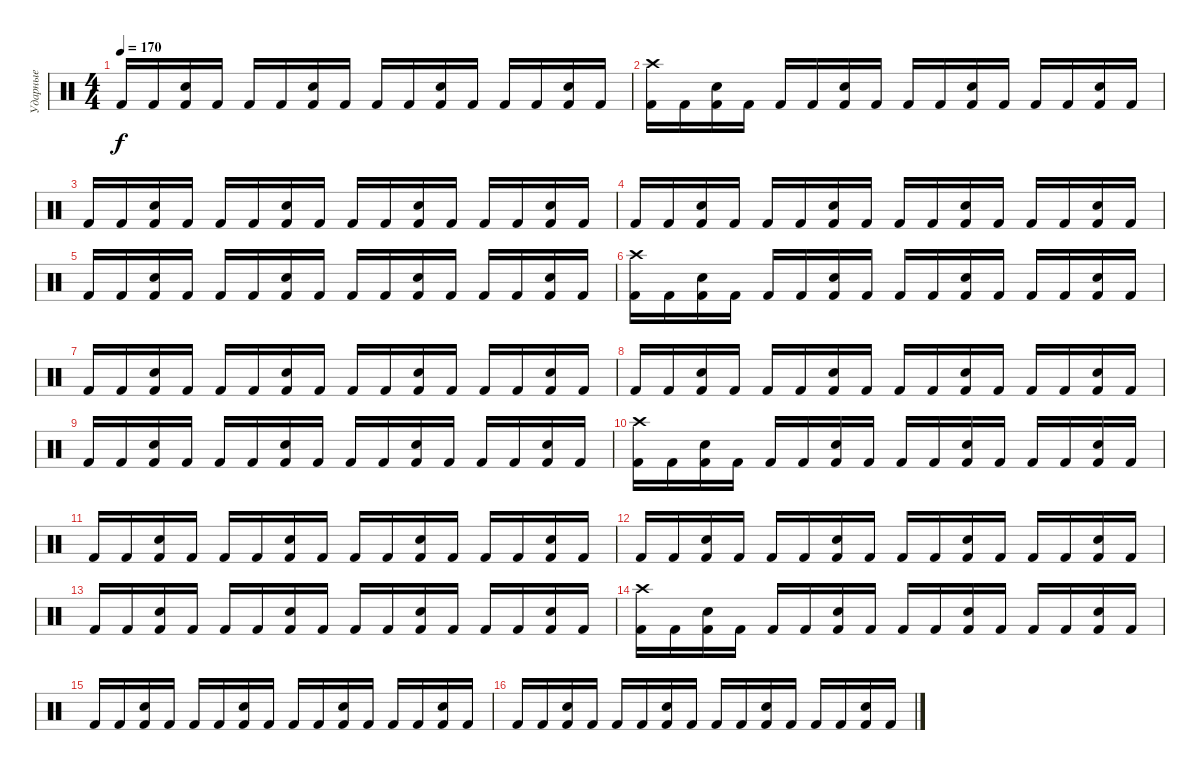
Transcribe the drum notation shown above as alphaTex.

\track ("Ударные" "Ударные") {instrument percussion}
\staff {score}
\articulation defaults
\ts (4 4)
\tempo 170
\clef neutral
\ks c "Kick (hit) 2".16{dy f} "Kick (hit) 2".16
("Kick (hit) 2" "Electric Snare (hit)").16 "Kick (hit) 2".16 "Kick (hit) 2".16 "Kick (hit) 2".16 ("Kick (hit) 2" "Electric Snare (hit)").16 "Kick (hit) 2".16 "Kick (hit) 2".16 "Kick (hit) 2".16 ("Kick (hit) 2" "Electric Snare (hit)").16 "Kick (hit) 2".16 "Kick (hit) 2".16 "Kick (hit) 2".16 ("Kick (hit) 2" "Electric Snare (hit)").16 "Kick (hit) 2".16 |
("Kick (hit) 2" "Crash high (hit)").16 "Kick (hit) 2".16 ("Kick (hit) 2" "Electric Snare (hit)").16 "Kick (hit) 2".16 "Kick (hit) 2".16 "Kick (hit) 2".16 ("Kick (hit) 2" "Electric Snare (hit)").16 "Kick (hit) 2".16 "Kick (hit) 2".16 "Kick (hit) 2".16 ("Kick (hit) 2" "Electric Snare (hit)").16 "Kick (hit) 2".16 "Kick (hit) 2".16 "Kick (hit) 2".16 ("Kick (hit) 2" "Electric Snare (hit)").16 "Kick (hit) 2".16 |
"Kick (hit) 2".16 "Kick (hit) 2".16 ("Kick (hit) 2" "Electric Snare (hit)").16 "Kick (hit) 2".16 "Kick (hit) 2".16 "Kick (hit) 2".16 ("Kick (hit) 2" "Electric Snare (hit)").16 "Kick (hit) 2".16 "Kick (hit) 2".16 "Kick (hit) 2".16 ("Kick (hit) 2" "Electric Snare (hit)").16 "Kick (hit) 2".16 "Kick (hit) 2".16 "Kick (hit) 2".16 ("Kick (hit) 2" "Electric Snare (hit)").16 "Kick (hit) 2".16 |
"Kick (hit) 2".16 "Kick (hit) 2".16 ("Kick (hit) 2" "Electric Snare (hit)").16 "Kick (hit) 2".16 "Kick (hit) 2".16 "Kick (hit) 2".16 ("Kick (hit) 2" "Electric Snare (hit)").16 "Kick (hit) 2".16 "Kick (hit) 2".16 "Kick (hit) 2".16 ("Kick (hit) 2" "Electric Snare (hit)").16 "Kick (hit) 2".16 "Kick (hit) 2".16 "Kick (hit) 2".16 ("Kick (hit) 2" "Electric Snare (hit)").16 "Kick (hit) 2".16 |
"Kick (hit) 2".16 "Kick (hit) 2".16 ("Kick (hit) 2" "Electric Snare (hit)").16 "Kick (hit) 2".16 "Kick (hit) 2".16 "Kick (hit) 2".16 ("Kick (hit) 2" "Electric Snare (hit)").16 "Kick (hit) 2".16 "Kick (hit) 2".16 "Kick (hit) 2".16 ("Kick (hit) 2" "Electric Snare (hit)").16 "Kick (hit) 2".16 "Kick (hit) 2".16 "Kick (hit) 2".16 ("Kick (hit) 2" "Electric Snare (hit)").16 "Kick (hit) 2".16 |
("Kick (hit) 2" "Crash high (hit)").16 "Kick (hit) 2".16 ("Kick (hit) 2" "Electric Snare (hit)").16 "Kick (hit) 2".16 "Kick (hit) 2".16 "Kick (hit) 2".16 ("Kick (hit) 2" "Electric Snare (hit)").16 "Kick (hit) 2".16 "Kick (hit) 2".16 "Kick (hit) 2".16 ("Kick (hit) 2" "Electric Snare (hit)").16 "Kick (hit) 2".16 "Kick (hit) 2".16 "Kick (hit) 2".16 ("Kick (hit) 2" "Electric Snare (hit)").16 "Kick (hit) 2".16 |
"Kick (hit) 2".16 "Kick (hit) 2".16 ("Kick (hit) 2" "Electric Snare (hit)").16 "Kick (hit) 2".16 "Kick (hit) 2".16 "Kick (hit) 2".16 ("Kick (hit) 2" "Electric Snare (hit)").16 "Kick (hit) 2".16 "Kick (hit) 2".16 "Kick (hit) 2".16 ("Kick (hit) 2" "Electric Snare (hit)").16 "Kick (hit) 2".16 "Kick (hit) 2".16 "Kick (hit) 2".16 ("Kick (hit) 2" "Electric Snare (hit)").16 "Kick (hit) 2".16 |
"Kick (hit) 2".16 "Kick (hit) 2".16 ("Kick (hit) 2" "Electric Snare (hit)").16 "Kick (hit) 2".16 "Kick (hit) 2".16 "Kick (hit) 2".16 ("Kick (hit) 2" "Electric Snare (hit)").16 "Kick (hit) 2".16 "Kick (hit) 2".16 "Kick (hit) 2".16 ("Kick (hit) 2" "Electric Snare (hit)").16 "Kick (hit) 2".16 "Kick (hit) 2".16 "Kick (hit) 2".16 ("Kick (hit) 2" "Electric Snare (hit)").16 "Kick (hit) 2".16 |
"Kick (hit) 2".16 "Kick (hit) 2".16 ("Kick (hit) 2" "Electric Snare (hit)").16 "Kick (hit) 2".16 "Kick (hit) 2".16 "Kick (hit) 2".16 ("Kick (hit) 2" "Electric Snare (hit)").16 "Kick (hit) 2".16 "Kick (hit) 2".16 "Kick (hit) 2".16 ("Kick (hit) 2" "Electric Snare (hit)").16 "Kick (hit) 2".16 "Kick (hit) 2".16 "Kick (hit) 2".16 ("Kick (hit) 2" "Electric Snare (hit)").16 "Kick (hit) 2".16 |
("Kick (hit) 2" "Crash high (hit)").16 "Kick (hit) 2".16 ("Kick (hit) 2" "Electric Snare (hit)").16 "Kick (hit) 2".16 "Kick (hit) 2".16 "Kick (hit) 2".16 ("Kick (hit) 2" "Electric Snare (hit)").16 "Kick (hit) 2".16 "Kick (hit) 2".16 "Kick (hit) 2".16 ("Kick (hit) 2" "Electric Snare (hit)").16 "Kick (hit) 2".16 "Kick (hit) 2".16 "Kick (hit) 2".16 ("Kick (hit) 2" "Electric Snare (hit)").16 "Kick (hit) 2".16 |
"Kick (hit) 2".16 "Kick (hit) 2".16 ("Kick (hit) 2" "Electric Snare (hit)").16 "Kick (hit) 2".16 "Kick (hit) 2".16 "Kick (hit) 2".16 ("Kick (hit) 2" "Electric Snare (hit)").16 "Kick (hit) 2".16 "Kick (hit) 2".16 "Kick (hit) 2".16 ("Kick (hit) 2" "Electric Snare (hit)").16 "Kick (hit) 2".16 "Kick (hit) 2".16 "Kick (hit) 2".16 ("Kick (hit) 2" "Electric Snare (hit)").16 "Kick (hit) 2".16 |
"Kick (hit) 2".16 "Kick (hit) 2".16 ("Kick (hit) 2" "Electric Snare (hit)").16 "Kick (hit) 2".16 "Kick (hit) 2".16 "Kick (hit) 2".16 ("Kick (hit) 2" "Electric Snare (hit)").16 "Kick (hit) 2".16 "Kick (hit) 2".16 "Kick (hit) 2".16 ("Kick (hit) 2" "Electric Snare (hit)").16 "Kick (hit) 2".16 "Kick (hit) 2".16 "Kick (hit) 2".16 ("Kick (hit) 2" "Electric Snare (hit)").16 "Kick (hit) 2".16 |
"Kick (hit) 2".16 "Kick (hit) 2".16 ("Kick (hit) 2" "Electric Snare (hit)").16 "Kick (hit) 2".16 "Kick (hit) 2".16 "Kick (hit) 2".16 ("Kick (hit) 2" "Electric Snare (hit)").16 "Kick (hit) 2".16 "Kick (hit) 2".16 "Kick (hit) 2".16 ("Kick (hit) 2" "Electric Snare (hit)").16 "Kick (hit) 2".16 "Kick (hit) 2".16 "Kick (hit) 2".16 ("Kick (hit) 2" "Electric Snare (hit)").16 "Kick (hit) 2".16 |
("Kick (hit) 2" "Crash high (hit)").16 "Kick (hit) 2".16 ("Kick (hit) 2" "Electric Snare (hit)").16 "Kick (hit) 2".16 "Kick (hit) 2".16 "Kick (hit) 2".16 ("Kick (hit) 2" "Electric Snare (hit)").16 "Kick (hit) 2".16 "Kick (hit) 2".16 "Kick (hit) 2".16 ("Kick (hit) 2" "Electric Snare (hit)").16 "Kick (hit) 2".16 "Kick (hit) 2".16 "Kick (hit) 2".16 ("Kick (hit) 2" "Electric Snare (hit)").16 "Kick (hit) 2".16 |
"Kick (hit) 2".16 "Kick (hit) 2".16 ("Kick (hit) 2" "Electric Snare (hit)").16 "Kick (hit) 2".16 "Kick (hit) 2".16 "Kick (hit) 2".16 ("Kick (hit) 2" "Electric Snare (hit)").16 "Kick (hit) 2".16 "Kick (hit) 2".16 "Kick (hit) 2".16 ("Kick (hit) 2" "Electric Snare (hit)").16 "Kick (hit) 2".16 "Kick (hit) 2".16 "Kick (hit) 2".16 ("Kick (hit) 2" "Electric Snare (hit)").16 "Kick (hit) 2".16 |
"Kick (hit) 2".16 "Kick (hit) 2".16 ("Kick (hit) 2" "Electric Snare (hit)").16 "Kick (hit) 2".16 "Kick (hit) 2".16 "Kick (hit) 2".16 ("Kick (hit) 2" "Electric Snare (hit)").16 "Kick (hit) 2".16 "Kick (hit) 2".16 "Kick (hit) 2".16 ("Kick (hit) 2" "Electric Snare (hit)").16 "Kick (hit) 2".16 "Kick (hit) 2".16 "Kick (hit) 2".16 ("Kick (hit) 2" "Electric Snare (hit)").16 "Kick (hit) 2".16
